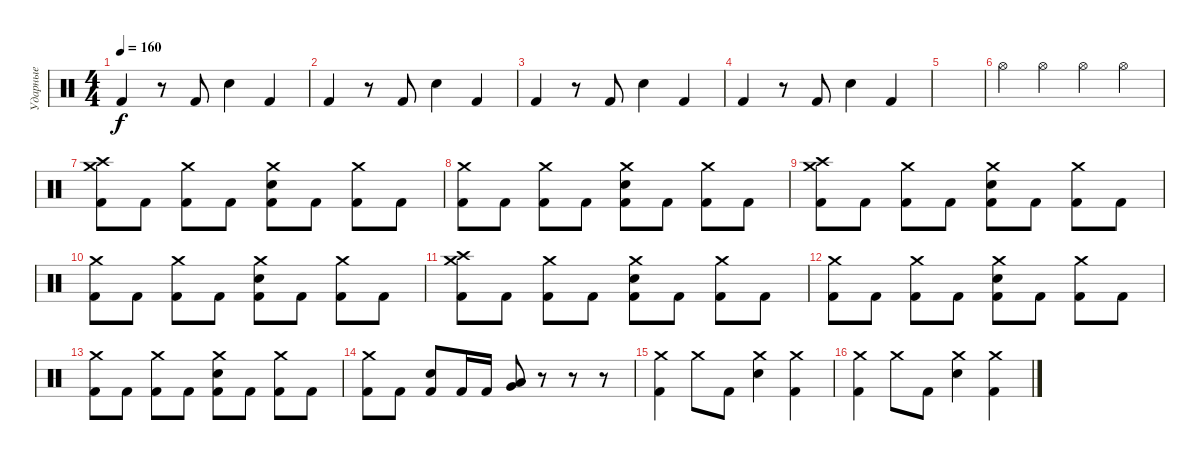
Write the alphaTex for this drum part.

\track ("Ударные" "Ударные") {instrument percussion}
\staff {score}
\articulation defaults
\ts (4 4)
\tempo 160
\clef neutral
\ks c "Kick (hit) 2".4{dy f}
r.8 "Kick (hit) 2".8 "Electric Snare (hit)".4 "Kick (hit) 2".4 |
"Kick (hit) 2".4 r.8 "Kick (hit) 2".8 "Electric Snare (hit)".4 "Kick (hit) 2".4 |
"Kick (hit) 2".4 r.8 "Kick (hit) 2".8 "Electric Snare (hit)".4 "Kick (hit) 2".4 |
"Kick (hit) 2".4 r.8 "Kick (hit) 2".8 "Electric Snare (hit)".4 "Kick (hit) 2".4 |
|
"Hi-Hat (open)".4 "Hi-Hat (open)".4 "Hi-Hat (open)".4 "Hi-Hat (open)".4 |
("Crash medium (hit)" "Crash high (hit)" "Kick (hit) 2").8 "Kick (hit) 2".8 ("Crash medium (hit)" "Kick (hit) 2").8 "Kick (hit) 2".8 ("Crash medium (hit)" "Electric Snare (hit)" "Kick (hit) 2").8 "Kick (hit) 2".8 ("Crash medium (hit)" "Kick (hit) 2").8 "Kick (hit) 2".8 |
("Crash medium (hit)" "Kick (hit) 2").8 "Kick (hit) 2".8 ("Crash medium (hit)" "Kick (hit) 2").8 "Kick (hit) 2".8 ("Crash medium (hit)" "Electric Snare (hit)" "Kick (hit) 2").8 "Kick (hit) 2".8 ("Crash medium (hit)" "Kick (hit) 2").8 "Kick (hit) 2".8 |
("Crash medium (hit)" "Crash high (hit)" "Kick (hit) 2").8 "Kick (hit) 2".8 ("Crash medium (hit)" "Kick (hit) 2").8 "Kick (hit) 2".8 ("Crash medium (hit)" "Electric Snare (hit)" "Kick (hit) 2").8 "Kick (hit) 2".8 ("Crash medium (hit)" "Kick (hit) 2").8 "Kick (hit) 2".8 |
("Crash medium (hit)" "Kick (hit) 2").8 "Kick (hit) 2".8 ("Crash medium (hit)" "Kick (hit) 2").8 "Kick (hit) 2".8 ("Crash medium (hit)" "Electric Snare (hit)" "Kick (hit) 2").8 "Kick (hit) 2".8 ("Crash medium (hit)" "Kick (hit) 2").8 "Kick (hit) 2".8 |
("Crash medium (hit)" "Crash high (hit)" "Kick (hit) 2").8 "Kick (hit) 2".8 ("Crash medium (hit)" "Kick (hit) 2").8 "Kick (hit) 2".8 ("Crash medium (hit)" "Electric Snare (hit)" "Kick (hit) 2").8 "Kick (hit) 2".8 ("Crash medium (hit)" "Kick (hit) 2").8 "Kick (hit) 2".8 |
("Crash medium (hit)" "Kick (hit) 2").8 "Kick (hit) 2".8 ("Crash medium (hit)" "Kick (hit) 2").8 "Kick (hit) 2".8 ("Crash medium (hit)" "Electric Snare (hit)" "Kick (hit) 2").8 "Kick (hit) 2".8 ("Crash medium (hit)" "Kick (hit) 2").8 "Kick (hit) 2".8 |
("Crash medium (hit)" "Kick (hit) 2").8 "Kick (hit) 2".8 ("Crash medium (hit)" "Kick (hit) 2").8 "Kick (hit) 2".8 ("Crash medium (hit)" "Electric Snare (hit)" "Kick (hit) 2").8 "Kick (hit) 2".8 ("Crash medium (hit)" "Kick (hit) 2").8 "Kick (hit) 2".8 |
("Crash medium (hit)" "Kick (hit) 2").8 "Kick (hit) 2".8 ("Electric Snare (hit)" "Kick (hit) 2").8 "Kick (hit) 2".16 "Kick (hit) 2".16 ("Very Low Tom (hit)" "Low Floor Tom (hit)").8 r.8 r.8 r.8 |
("Crash medium (hit)" "Kick (hit) 2").4 "Crash medium (hit)".8 "Kick (hit) 2".8 ("Crash medium (hit)" "Electric Snare (hit)").4 ("Crash medium (hit)" "Kick (hit) 2").4 |
("Crash medium (hit)" "Kick (hit) 2").4 "Crash medium (hit)".8 "Kick (hit) 2".8 ("Crash medium (hit)" "Electric Snare (hit)").4 ("Crash medium (hit)" "Kick (hit) 2").4
